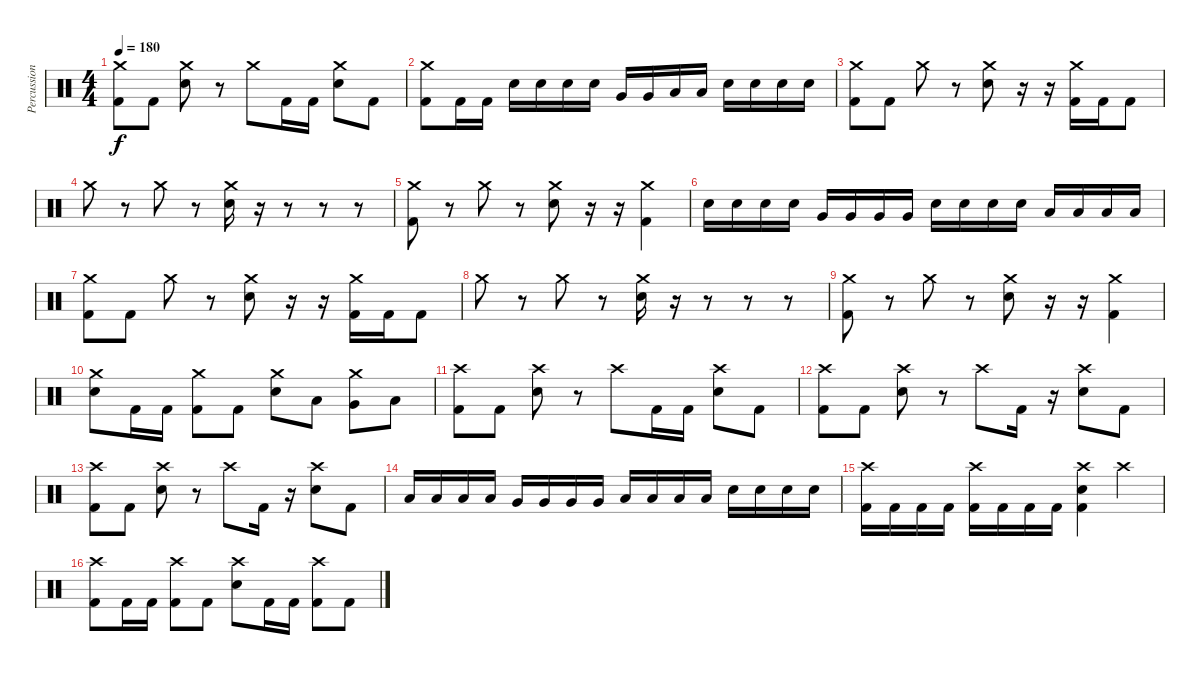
\track ("Percussions" "Percussion") {instrument percussion}
\staff {score}
\articulation defaults
\ts (4 4)
\tempo 180
\clef neutral
\ks c
("Crash medium (hit)" "Kick (hit) 2").8{dy f} "Kick (hit) 2".8 ("Crash medium (hit)" "Electric Snare (hit)").8 r.8 "Crash medium (hit)".8 "Kick (hit) 2".16 "Kick (hit) 2".16 ("Crash medium (hit)" "Electric Snare (hit)").8 "Kick (hit) 2".8 |
("Crash medium (hit)" "Kick (hit) 2").8 "Kick (hit) 2".16 "Kick (hit) 2".16 "Electric Snare (hit)".16 "Electric Snare (hit)".16 "Electric Snare (hit)".16 "Electric Snare (hit)".16 "Very Low Tom (hit)".16 "Very Low Tom (hit)".16 "Low Floor Tom (hit)".16 "Low Floor Tom (hit)".16 "Electric Snare (hit)".16 "Electric Snare (hit)".16 "Electric Snare (hit)".16 "Electric Snare (hit)".16 |
("Crash medium (hit)" "Kick (hit) 2").8 "Kick (hit) 2".8 "Crash medium (hit)".8 r.8 ("Crash medium (hit)" "Electric Snare (hit)").8 r.16 r.16 ("Crash medium (hit)" "Kick (hit) 2").16 "Kick (hit) 2".16 "Kick (hit) 2".8 |
"Crash medium (hit)".8 r.8 "Crash medium (hit)".8 r.8 ("Crash medium (hit)" "Electric Snare (hit)").16 r.16 r.8 r.8 r.8 |
("Crash medium (hit)" "Kick (hit) 2").8 r.8 "Crash medium (hit)".8 r.8 ("Crash medium (hit)" "Electric Snare (hit)").8 r.16 r.16 ("Crash medium (hit)" "Kick (hit) 2").4 |
"Electric Snare (hit)".16 "Electric Snare (hit)".16 "Electric Snare (hit)".16 "Electric Snare (hit)".16 "Very Low Tom (hit)".16 "Very Low Tom (hit)".16 "Very Low Tom (hit)".16 "Very Low Tom (hit)".16 "Electric Snare (hit)".16 "Electric Snare (hit)".16 "Electric Snare (hit)".16 "Electric Snare (hit)".16 "Low Tom (hit)".16 "Low Tom (hit)".16 "Low Tom (hit)".16 "Low Tom (hit)".16 |
("Crash medium (hit)" "Kick (hit) 2").8 "Kick (hit) 2".8 "Crash medium (hit)".8 r.8 ("Crash medium (hit)" "Electric Snare (hit)").8 r.16 r.16 ("Crash medium (hit)" "Kick (hit) 2").16 "Kick (hit) 2".16 "Kick (hit) 2".8 |
"Crash medium (hit)".8 r.8 "Crash medium (hit)".8 r.8 ("Crash medium (hit)" "Electric Snare (hit)").16 r.16 r.8 r.8 r.8 |
("Crash medium (hit)" "Kick (hit) 2").8 r.8 "Crash medium (hit)".8 r.8 ("Crash medium (hit)" "Electric Snare (hit)").8 r.16 r.16 ("Crash medium (hit)" "Kick (hit) 2").4 |
("Crash medium (hit)" "Electric Snare (hit)").8 "Kick (hit) 2".16 "Kick (hit) 2".16 ("Crash medium (hit)" "Kick (hit) 2").8 "Kick (hit) 2".8 ("Crash medium (hit)" "Electric Snare (hit)").8 "Low Tom (hit)".8 ("Crash medium (hit)" "Very Low Tom (hit)").8 "Low Floor Tom (hit)".8 |
("Crash high (hit)" "Kick (hit) 2").8 "Kick (hit) 2".8 ("Crash high (hit)" "Electric Snare (hit)").8 r.8 "Crash high (hit)".8 "Kick (hit) 2".16 "Kick (hit) 2".16 ("Crash high (hit)" "Electric Snare (hit)").8 "Kick (hit) 2".8 |
("Crash high (hit)" "Kick (hit) 2").8 "Kick (hit) 2".8 ("Crash high (hit)" "Electric Snare (hit)").8 r.8 "Crash high (hit)".8 "Kick (hit) 2".16 r.16 ("Crash high (hit)" "Electric Snare (hit)").8 "Kick (hit) 2".8 |
("Crash high (hit)" "Kick (hit) 2").8 "Kick (hit) 2".8 ("Crash high (hit)" "Electric Snare (hit)").8 r.8 "Crash high (hit)".8 "Kick (hit) 2".16 r.16 ("Crash high (hit)" "Electric Snare (hit)").8 "Kick (hit) 2".8 |
"Low Tom (hit)".16 "Low Tom (hit)".16 "Low Tom (hit)".16 "Low Tom (hit)".16 "Very Low Tom (hit)".16 "Very Low Tom (hit)".16 "Very Low Tom (hit)".16 "Very Low Tom (hit)".16 "Low Floor Tom (hit)".16 "Low Floor Tom (hit)".16 "Low Floor Tom (hit)".16 "Low Floor Tom (hit)".16 "Electric Snare (hit)".16 "Electric Snare (hit)".16 "Electric Snare (hit)".16 "Electric Snare (hit)".16 |
("Crash high (hit)" "Kick (hit) 2").16 "Kick (hit) 2".16 "Kick (hit) 2".16 "Kick (hit) 2".16 ("Crash high (hit)" "Kick (hit) 2").16 "Kick (hit) 2".16 "Kick (hit) 2".16 "Kick (hit) 2".16 ("Crash high (hit)" "Electric Snare (hit)" "Kick (hit) 2").4 "Crash high (hit)".4 |
("Crash high (hit)" "Kick (hit) 2").8 "Kick (hit) 2".16 "Kick (hit) 2".16 ("Crash high (hit)" "Kick (hit) 2").8 "Kick (hit) 2".8 ("Crash high (hit)" "Electric Snare (hit)").8 "Kick (hit) 2".16 "Kick (hit) 2".16 ("Crash high (hit)" "Kick (hit) 2").8 "Kick (hit) 2".8
